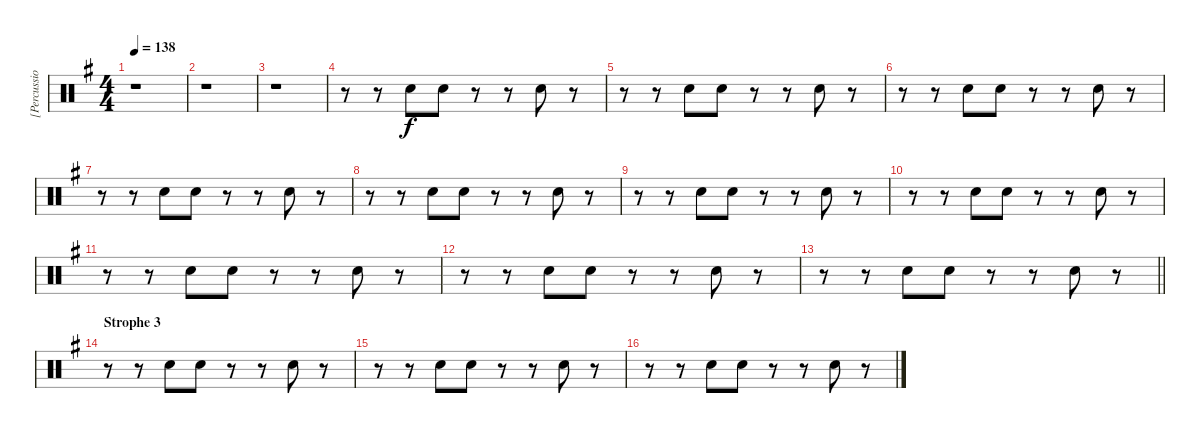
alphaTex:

\track ("[Percussion]" "[Percussio") {instrument percussion}
\staff {score}
\articulation defaults
\ts (4 4)
\tempo 138
\clef neutral
\ks eminor
r.1{dy f} |
r.1 |
r.1 |
r.8 r.8 "Hand Clap (hit)".8 "Hand Clap (hit)".8 r.8 r.8 "Hand Clap (hit)".8 r.8 |
r.8 r.8 "Hand Clap (hit)".8 "Hand Clap (hit)".8 r.8 r.8 "Hand Clap (hit)".8 r.8 |
r.8 r.8 "Hand Clap (hit)".8 "Hand Clap (hit)".8 r.8 r.8 "Hand Clap (hit)".8 r.8 |
r.8 r.8 "Hand Clap (hit)".8 "Hand Clap (hit)".8 r.8 r.8 "Hand Clap (hit)".8 r.8 |
r.8 r.8 "Hand Clap (hit)".8 "Hand Clap (hit)".8 r.8 r.8 "Hand Clap (hit)".8 r.8 |
r.8 r.8 "Hand Clap (hit)".8 "Hand Clap (hit)".8 r.8 r.8 "Hand Clap (hit)".8 r.8 |
r.8 r.8 "Hand Clap (hit)".8 "Hand Clap (hit)".8 r.8 r.8 "Hand Clap (hit)".8 r.8 |
r.8 r.8 "Hand Clap (hit)".8 "Hand Clap (hit)".8 r.8 r.8 "Hand Clap (hit)".8 r.8 |
r.8 r.8 "Hand Clap (hit)".8 "Hand Clap (hit)".8 r.8 r.8 "Hand Clap (hit)".8 r.8 |
\barLineRight lightlight
r.8 r.8 "Hand Clap (hit)".8 "Hand Clap (hit)".8 r.8 r.8 "Hand Clap (hit)".8 r.8 |
\section ("" "Strophe 3")
r.8 r.8 "Hand Clap (hit)".8 "Hand Clap (hit)".8 r.8 r.8 "Hand Clap (hit)".8 r.8 |
r.8 r.8 "Hand Clap (hit)".8 "Hand Clap (hit)".8 r.8 r.8 "Hand Clap (hit)".8 r.8 |
r.8 r.8 "Hand Clap (hit)".8 "Hand Clap (hit)".8 r.8 r.8 "Hand Clap (hit)".8 r.8
